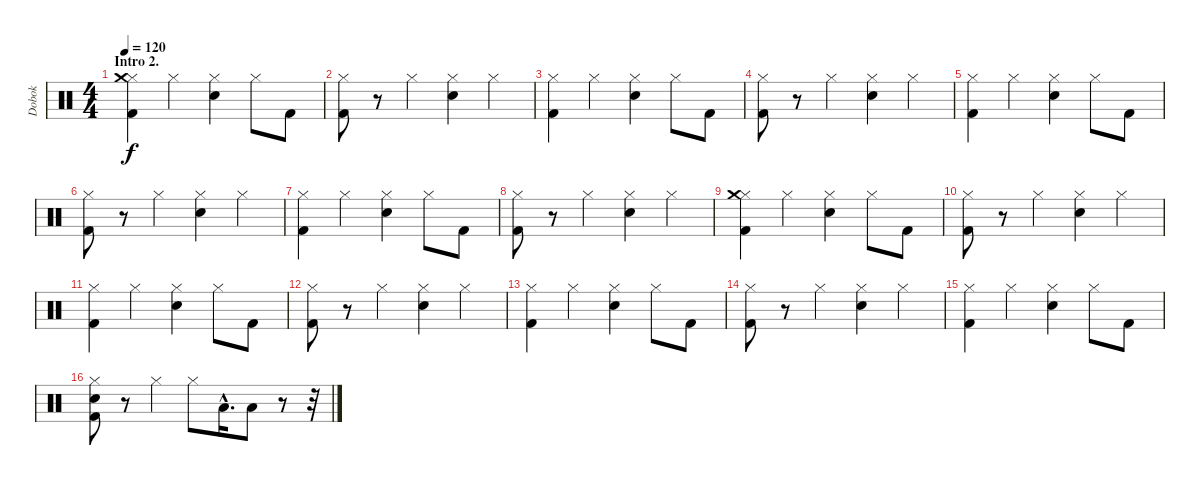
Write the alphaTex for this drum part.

\track ("Dobok" "Dobok") {instrument percussion}
\staff {score}
\articulation defaults
\ts (4 4)
\section ("" "Intro 2.")
\tempo 120
\clef neutral
\ks c
("Hi-Hat (closed)" "Kick (hit) 2" "Crash medium (hit)").4{dy f} "Hi-Hat (closed)".4 ("Hi-Hat (closed)" "Snare (hit) 2").4 "Hi-Hat (closed)".8 "Kick (hit) 2".8 |
("Hi-Hat (closed)" "Kick (hit) 2").8 r.8 "Hi-Hat (closed)".4 ("Hi-Hat (closed)" "Snare (hit) 2").4 "Hi-Hat (closed)".4 |
("Hi-Hat (closed)" "Kick (hit) 2").4 "Hi-Hat (closed)".4 ("Hi-Hat (closed)" "Snare (hit) 2").4 "Hi-Hat (closed)".8 "Kick (hit) 2".8 |
("Hi-Hat (closed)" "Kick (hit) 2").8 r.8 "Hi-Hat (closed)".4 ("Hi-Hat (closed)" "Snare (hit) 2").4 "Hi-Hat (closed)".4 |
("Hi-Hat (closed)" "Kick (hit) 2").4 "Hi-Hat (closed)".4 ("Hi-Hat (closed)" "Snare (hit) 2").4 "Hi-Hat (closed)".8 "Kick (hit) 2".8 |
("Hi-Hat (closed)" "Kick (hit) 2").8 r.8 "Hi-Hat (closed)".4 ("Hi-Hat (closed)" "Snare (hit) 2").4 "Hi-Hat (closed)".4 |
("Hi-Hat (closed)" "Kick (hit) 2").4 "Hi-Hat (closed)".4 ("Hi-Hat (closed)" "Snare (hit) 2").4 "Hi-Hat (closed)".8 "Kick (hit) 2".8 |
("Hi-Hat (closed)" "Kick (hit) 2").8 r.8 "Hi-Hat (closed)".4 ("Hi-Hat (closed)" "Snare (hit) 2").4 "Hi-Hat (closed)".4 |
("Hi-Hat (closed)" "Kick (hit) 2" "Crash medium (hit)").4 "Hi-Hat (closed)".4 ("Hi-Hat (closed)" "Snare (hit) 2").4 "Hi-Hat (closed)".8 "Kick (hit) 2".8 |
("Hi-Hat (closed)" "Kick (hit) 2").8 r.8 "Hi-Hat (closed)".4 ("Hi-Hat (closed)" "Snare (hit) 2").4 "Hi-Hat (closed)".4 |
("Hi-Hat (closed)" "Kick (hit) 2").4 "Hi-Hat (closed)".4 ("Hi-Hat (closed)" "Snare (hit) 2").4 "Hi-Hat (closed)".8 "Kick (hit) 2".8 |
("Hi-Hat (closed)" "Kick (hit) 2").8 r.8 "Hi-Hat (closed)".4 ("Hi-Hat (closed)" "Snare (hit) 2").4 "Hi-Hat (closed)".4 |
("Hi-Hat (closed)" "Kick (hit) 2").4 "Hi-Hat (closed)".4 ("Hi-Hat (closed)" "Snare (hit) 2").4 "Hi-Hat (closed)".8 "Kick (hit) 2".8 |
("Hi-Hat (closed)" "Kick (hit) 2").8 r.8 "Hi-Hat (closed)".4 ("Hi-Hat (closed)" "Snare (hit) 2").4 "Hi-Hat (closed)".4 |
("Hi-Hat (closed)" "Kick (hit) 2").4 "Hi-Hat (closed)".4 ("Hi-Hat (closed)" "Snare (hit) 2").4 "Hi-Hat (closed)".8 "Kick (hit) 2".8 |
("Hi-Hat (closed)" "Kick (hit) 2" "Snare (hit) 2").8 r.8 "Hi-Hat (closed)".4 "Hi-Hat (closed)".8 "Low Floor Tom (hit)"{hac}.16{d} "Low Floor Tom (hit)".8 r.8 r.32
